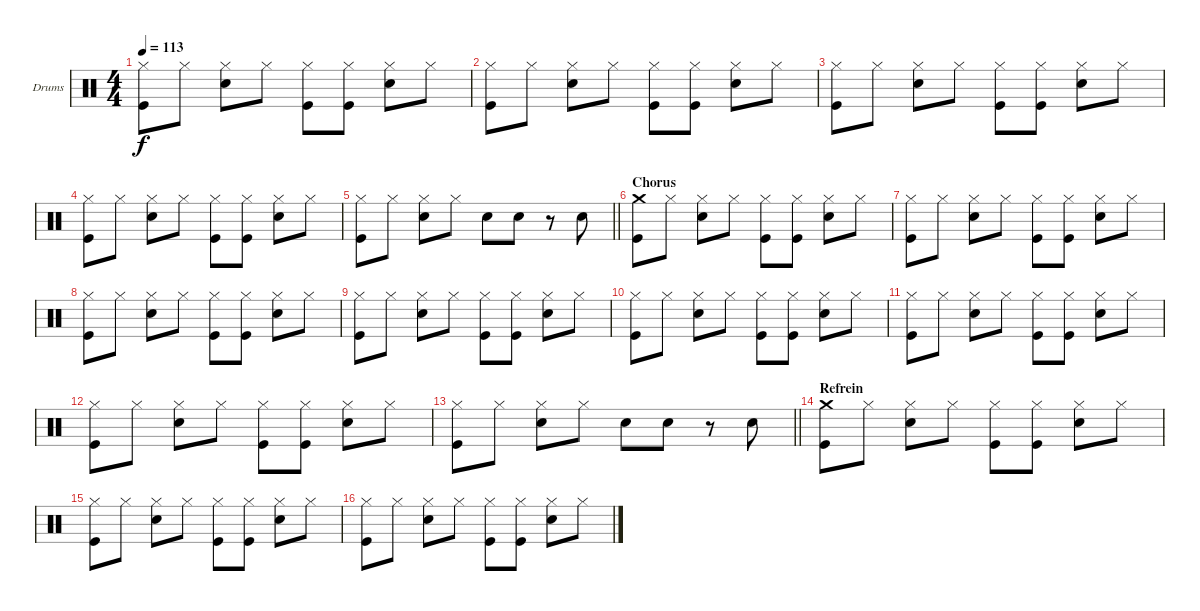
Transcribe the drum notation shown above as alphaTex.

\bracketExtendMode groupsimilarinstruments
\firstSystemTrackNameOrientation horizontal
\otherSystemsTrackNameOrientation horizontal
\track ("Drumkit" "Drums") {instrument percussion}
\staff {score}
\articulation defaults
\ts (4 4)
\tempo 113
\clef neutral
\ks c
("Hi-Hat (closed)" "Kick (hit)").8{dy f} "Hi-Hat (closed)".8 ("Hi-Hat (closed)" "Snare (hit) 2").8 "Hi-Hat (closed)".8 ("Hi-Hat (closed)" "Kick (hit)").8 ("Hi-Hat (closed)" "Kick (hit)").8 ("Hi-Hat (closed)" "Snare (hit) 2").8 "Hi-Hat (closed)".8 |
("Hi-Hat (closed)" "Kick (hit)").8 "Hi-Hat (closed)".8 ("Hi-Hat (closed)" "Snare (hit) 2").8 "Hi-Hat (closed)".8 ("Hi-Hat (closed)" "Kick (hit)").8 ("Hi-Hat (closed)" "Kick (hit)").8 ("Hi-Hat (closed)" "Snare (hit) 2").8 "Hi-Hat (closed)".8 |
("Hi-Hat (closed)" "Kick (hit)").8 "Hi-Hat (closed)".8 ("Hi-Hat (closed)" "Snare (hit) 2").8 "Hi-Hat (closed)".8 ("Hi-Hat (closed)" "Kick (hit)").8 ("Hi-Hat (closed)" "Kick (hit)").8 ("Hi-Hat (closed)" "Snare (hit) 2").8 "Hi-Hat (closed)".8 |
("Hi-Hat (closed)" "Kick (hit)").8 "Hi-Hat (closed)".8 ("Hi-Hat (closed)" "Snare (hit) 2").8 "Hi-Hat (closed)".8 ("Hi-Hat (closed)" "Kick (hit)").8 ("Hi-Hat (closed)" "Kick (hit)").8 ("Hi-Hat (closed)" "Snare (hit) 2").8 "Hi-Hat (closed)".8 |
\barLineRight lightlight
("Hi-Hat (closed)" "Kick (hit)").8 "Hi-Hat (closed)".8 ("Hi-Hat (closed)" "Snare (hit) 2").8 "Hi-Hat (closed)".8 "Snare (hit) 2".8 "Snare (hit) 2".8 r.8 "Snare (hit) 2".8 |
\section ("" "Chorus")
("Crash medium (hit)" "Kick (hit)").8 "Hi-Hat (closed)".8 ("Hi-Hat (closed)" "Snare (hit) 2").8 "Hi-Hat (closed)".8 ("Hi-Hat (closed)" "Kick (hit)").8 ("Hi-Hat (closed)" "Kick (hit)").8 ("Hi-Hat (closed)" "Snare (hit) 2").8 "Hi-Hat (closed)".8 |
("Hi-Hat (closed)" "Kick (hit)").8 "Hi-Hat (closed)".8 ("Hi-Hat (closed)" "Snare (hit) 2").8 "Hi-Hat (closed)".8 ("Hi-Hat (closed)" "Kick (hit)").8 ("Hi-Hat (closed)" "Kick (hit)").8 ("Hi-Hat (closed)" "Snare (hit) 2").8 "Hi-Hat (closed)".8 |
("Hi-Hat (closed)" "Kick (hit)").8 "Hi-Hat (closed)".8 ("Hi-Hat (closed)" "Snare (hit) 2").8 "Hi-Hat (closed)".8 ("Hi-Hat (closed)" "Kick (hit)").8 ("Hi-Hat (closed)" "Kick (hit)").8 ("Hi-Hat (closed)" "Snare (hit) 2").8 "Hi-Hat (closed)".8 |
("Hi-Hat (closed)" "Kick (hit)").8 "Hi-Hat (closed)".8 ("Hi-Hat (closed)" "Snare (hit) 2").8 "Hi-Hat (closed)".8 ("Hi-Hat (closed)" "Kick (hit)").8 ("Hi-Hat (closed)" "Kick (hit)").8 ("Hi-Hat (closed)" "Snare (hit) 2").8 "Hi-Hat (closed)".8 |
("Hi-Hat (closed)" "Kick (hit)").8 "Hi-Hat (closed)".8 ("Hi-Hat (closed)" "Snare (hit) 2").8 "Hi-Hat (closed)".8 ("Hi-Hat (closed)" "Kick (hit)").8 ("Hi-Hat (closed)" "Kick (hit)").8 ("Hi-Hat (closed)" "Snare (hit) 2").8 "Hi-Hat (closed)".8 |
("Hi-Hat (closed)" "Kick (hit)").8 "Hi-Hat (closed)".8 ("Hi-Hat (closed)" "Snare (hit) 2").8 "Hi-Hat (closed)".8 ("Hi-Hat (closed)" "Kick (hit)").8 ("Hi-Hat (closed)" "Kick (hit)").8 ("Hi-Hat (closed)" "Snare (hit) 2").8 "Hi-Hat (closed)".8 |
("Hi-Hat (closed)" "Kick (hit)").8 "Hi-Hat (closed)".8 ("Hi-Hat (closed)" "Snare (hit) 2").8 "Hi-Hat (closed)".8 ("Hi-Hat (closed)" "Kick (hit)").8 ("Hi-Hat (closed)" "Kick (hit)").8 ("Hi-Hat (closed)" "Snare (hit) 2").8 "Hi-Hat (closed)".8 |
\barLineRight lightlight
("Hi-Hat (closed)" "Kick (hit)").8 "Hi-Hat (closed)".8 ("Hi-Hat (closed)" "Snare (hit) 2").8 "Hi-Hat (closed)".8 "Snare (hit) 2".8 "Snare (hit) 2".8 r.8 "Snare (hit) 2".8 |
\section ("" "Refrein")
("Crash medium (hit)" "Kick (hit)").8 "Hi-Hat (closed)".8 ("Hi-Hat (closed)" "Snare (hit) 2").8 "Hi-Hat (closed)".8 ("Hi-Hat (closed)" "Kick (hit)").8 ("Hi-Hat (closed)" "Kick (hit)").8 ("Hi-Hat (closed)" "Snare (hit) 2").8 "Hi-Hat (closed)".8 |
("Hi-Hat (closed)" "Kick (hit)").8 "Hi-Hat (closed)".8 ("Hi-Hat (closed)" "Snare (hit) 2").8 "Hi-Hat (closed)".8 ("Hi-Hat (closed)" "Kick (hit)").8 ("Hi-Hat (closed)" "Kick (hit)").8 ("Hi-Hat (closed)" "Snare (hit) 2").8 "Hi-Hat (closed)".8 |
("Hi-Hat (closed)" "Kick (hit)").8 "Hi-Hat (closed)".8 ("Hi-Hat (closed)" "Snare (hit) 2").8 "Hi-Hat (closed)".8 ("Hi-Hat (closed)" "Kick (hit)").8 ("Hi-Hat (closed)" "Kick (hit)").8 ("Hi-Hat (closed)" "Snare (hit) 2").8 "Hi-Hat (closed)".8
